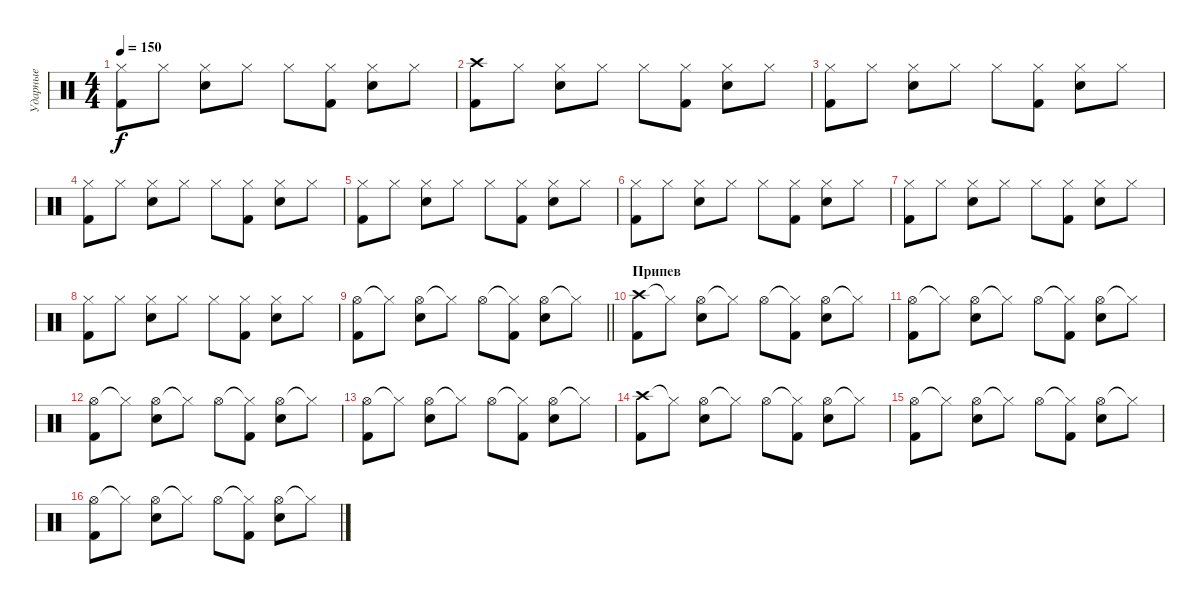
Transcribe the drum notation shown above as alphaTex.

\track ("Ударные" "Ударные") {instrument percussion}
\staff {score}
\articulation defaults
\ts (4 4)
\tempo 150
\clef neutral
\ks c
("Hi-Hat (closed)" "Kick (hit) 2").8{dy f} "Hi-Hat (closed)".8 ("Hi-Hat (closed)" "Snare (hit) 2").8 "Hi-Hat (closed)".8 "Hi-Hat (closed)".8 ("Hi-Hat (closed)" "Kick (hit) 2").8 ("Hi-Hat (closed)" "Snare (hit) 2").8 "Hi-Hat (closed)".8 |
("Crash high (hit)" "Kick (hit) 2").8 "Hi-Hat (closed)".8 ("Hi-Hat (closed)" "Snare (hit) 2").8 "Hi-Hat (closed)".8 "Hi-Hat (closed)".8 ("Hi-Hat (closed)" "Kick (hit) 2").8 ("Hi-Hat (closed)" "Snare (hit) 2").8 "Hi-Hat (closed)".8 |
("Hi-Hat (closed)" "Kick (hit) 2").8 "Hi-Hat (closed)".8 ("Hi-Hat (closed)" "Snare (hit) 2").8 "Hi-Hat (closed)".8 "Hi-Hat (closed)".8 ("Hi-Hat (closed)" "Kick (hit) 2").8 ("Hi-Hat (closed)" "Snare (hit) 2").8 "Hi-Hat (closed)".8 |
("Hi-Hat (closed)" "Kick (hit) 2").8 "Hi-Hat (closed)".8 ("Hi-Hat (closed)" "Snare (hit) 2").8 "Hi-Hat (closed)".8 "Hi-Hat (closed)".8 ("Hi-Hat (closed)" "Kick (hit) 2").8 ("Hi-Hat (closed)" "Snare (hit) 2").8 "Hi-Hat (closed)".8 |
("Hi-Hat (closed)" "Kick (hit) 2").8 "Hi-Hat (closed)".8 ("Hi-Hat (closed)" "Snare (hit) 2").8 "Hi-Hat (closed)".8 "Hi-Hat (closed)".8 ("Hi-Hat (closed)" "Kick (hit) 2").8 ("Hi-Hat (closed)" "Snare (hit) 2").8 "Hi-Hat (closed)".8 |
("Hi-Hat (closed)" "Kick (hit) 2").8 "Hi-Hat (closed)".8 ("Hi-Hat (closed)" "Snare (hit) 2").8 "Hi-Hat (closed)".8 "Hi-Hat (closed)".8 ("Hi-Hat (closed)" "Kick (hit) 2").8 ("Hi-Hat (closed)" "Snare (hit) 2").8 "Hi-Hat (closed)".8 |
("Hi-Hat (closed)" "Kick (hit) 2").8 "Hi-Hat (closed)".8 ("Hi-Hat (closed)" "Snare (hit) 2").8 "Hi-Hat (closed)".8 "Hi-Hat (closed)".8 ("Hi-Hat (closed)" "Kick (hit) 2").8 ("Hi-Hat (closed)" "Snare (hit) 2").8 "Hi-Hat (closed)".8 |
("Hi-Hat (closed)" "Kick (hit) 2").8 "Hi-Hat (closed)".8 ("Hi-Hat (closed)" "Snare (hit) 2").8 "Hi-Hat (closed)".8 "Hi-Hat (closed)".8 ("Hi-Hat (closed)" "Kick (hit) 2").8 ("Hi-Hat (closed)" "Snare (hit) 2").8 "Hi-Hat (closed)".8 |
\barLineRight lightlight
("Hi-Hat (open)" "Kick (hit) 2").8 "Hi-Hat (closed)"{t}.8 ("Hi-Hat (open)" "Snare (hit) 2").8 "Hi-Hat (closed)"{t}.8 "Hi-Hat (open)".8 ("Hi-Hat (closed)"{t} "Kick (hit) 2").8 ("Hi-Hat (open)" "Snare (hit) 2").8 "Hi-Hat (closed)"{t}.8 |
\section ("" "Припев")
("Crash high (hit)" "Kick (hit) 2").8 "Hi-Hat (closed)"{t}.8 ("Hi-Hat (open)" "Snare (hit) 2").8 "Hi-Hat (closed)"{t}.8 "Hi-Hat (open)".8 ("Hi-Hat (closed)"{t} "Kick (hit) 2").8 ("Hi-Hat (open)" "Snare (hit) 2").8 "Hi-Hat (closed)"{t}.8 |
("Hi-Hat (open)" "Kick (hit) 2").8 "Hi-Hat (closed)"{t}.8 ("Hi-Hat (open)" "Snare (hit) 2").8 "Hi-Hat (closed)"{t}.8 "Hi-Hat (open)".8 ("Hi-Hat (closed)"{t} "Kick (hit) 2").8 ("Hi-Hat (open)" "Snare (hit) 2").8 "Hi-Hat (closed)"{t}.8 |
("Hi-Hat (open)" "Kick (hit) 2").8 "Hi-Hat (closed)"{t}.8 ("Hi-Hat (open)" "Snare (hit) 2").8 "Hi-Hat (closed)"{t}.8 "Hi-Hat (open)".8 ("Hi-Hat (closed)"{t} "Kick (hit) 2").8 ("Hi-Hat (open)" "Snare (hit) 2").8 "Hi-Hat (closed)"{t}.8 |
("Hi-Hat (open)" "Kick (hit) 2").8 "Hi-Hat (closed)"{t}.8 ("Hi-Hat (open)" "Snare (hit) 2").8 "Hi-Hat (closed)"{t}.8 "Hi-Hat (open)".8 ("Hi-Hat (closed)"{t} "Kick (hit) 2").8 ("Hi-Hat (open)" "Snare (hit) 2").8 "Hi-Hat (closed)"{t}.8 |
("Crash high (hit)" "Kick (hit) 2").8 "Hi-Hat (closed)"{t}.8 ("Hi-Hat (open)" "Snare (hit) 2").8 "Hi-Hat (closed)"{t}.8 "Hi-Hat (open)".8 ("Hi-Hat (closed)"{t} "Kick (hit) 2").8 ("Hi-Hat (open)" "Snare (hit) 2").8 "Hi-Hat (closed)"{t}.8 |
("Hi-Hat (open)" "Kick (hit) 2").8 "Hi-Hat (closed)"{t}.8 ("Hi-Hat (open)" "Snare (hit) 2").8 "Hi-Hat (closed)"{t}.8 "Hi-Hat (open)".8 ("Hi-Hat (closed)"{t} "Kick (hit) 2").8 ("Hi-Hat (open)" "Snare (hit) 2").8 "Hi-Hat (closed)"{t}.8 |
("Hi-Hat (open)" "Kick (hit) 2").8 "Hi-Hat (closed)"{t}.8 ("Hi-Hat (open)" "Snare (hit) 2").8 "Hi-Hat (closed)"{t}.8 "Hi-Hat (open)".8 ("Hi-Hat (closed)"{t} "Kick (hit) 2").8 ("Hi-Hat (open)" "Snare (hit) 2").8 "Hi-Hat (closed)"{t}.8
